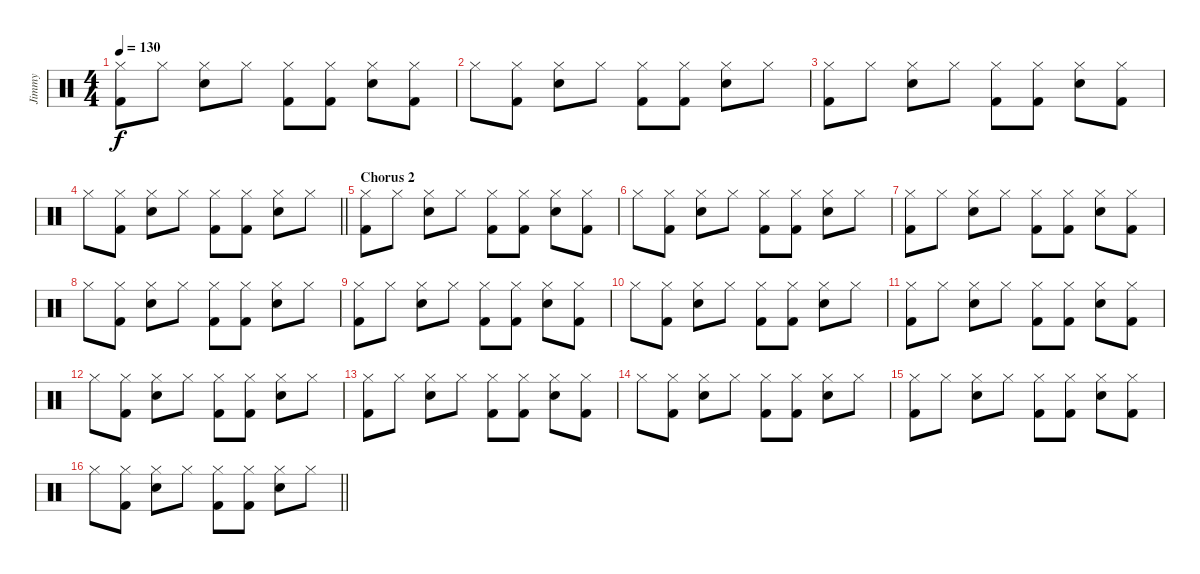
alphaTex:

\track ("Jimmy" "Jimmy") {instrument percussion}
\staff {score}
\articulation defaults
\ts (4 4)
\tempo 130
\clef neutral
\ks c
("Hi-Hat (closed)" "Kick (hit) 2").8{dy f} "Hi-Hat (closed)".8 ("Hi-Hat (closed)" "Electric Snare (hit)").8 "Hi-Hat (closed)".8 ("Hi-Hat (closed)" "Kick (hit) 2").8 ("Hi-Hat (closed)" "Kick (hit) 2").8 ("Hi-Hat (closed)" "Electric Snare (hit)").8 ("Hi-Hat (closed)" "Kick (hit) 2").8 |
"Hi-Hat (closed)".8 ("Hi-Hat (closed)" "Kick (hit) 2").8 ("Hi-Hat (closed)" "Electric Snare (hit)").8 "Hi-Hat (closed)".8 ("Hi-Hat (closed)" "Kick (hit) 2").8 ("Hi-Hat (closed)" "Kick (hit) 2").8 ("Hi-Hat (closed)" "Electric Snare (hit)").8 "Hi-Hat (closed)".8 |
("Hi-Hat (closed)" "Kick (hit) 2").8 "Hi-Hat (closed)".8 ("Hi-Hat (closed)" "Electric Snare (hit)").8 "Hi-Hat (closed)".8 ("Hi-Hat (closed)" "Kick (hit) 2").8 ("Hi-Hat (closed)" "Kick (hit) 2").8 ("Hi-Hat (closed)" "Electric Snare (hit)").8 ("Hi-Hat (closed)" "Kick (hit) 2").8 |
\barLineRight lightlight "Hi-Hat (closed)".8
("Hi-Hat (closed)" "Kick (hit) 2").8 ("Hi-Hat (closed)" "Electric Snare (hit)").8 "Hi-Hat (closed)".8 ("Hi-Hat (closed)" "Kick (hit) 2").8 ("Hi-Hat (closed)" "Kick (hit) 2").8 ("Hi-Hat (closed)" "Electric Snare (hit)").8 "Hi-Hat (closed)".8 |
\section ("" "Chorus 2")
("Hi-Hat (closed)" "Kick (hit) 2").8 "Hi-Hat (closed)".8 ("Hi-Hat (closed)" "Electric Snare (hit)").8 "Hi-Hat (closed)".8 ("Hi-Hat (closed)" "Kick (hit) 2").8 ("Hi-Hat (closed)" "Kick (hit) 2").8 ("Hi-Hat (closed)" "Electric Snare (hit)").8 ("Hi-Hat (closed)" "Kick (hit) 2").8 |
"Hi-Hat (closed)".8 ("Hi-Hat (closed)" "Kick (hit) 2").8 ("Hi-Hat (closed)" "Electric Snare (hit)").8 "Hi-Hat (closed)".8 ("Hi-Hat (closed)" "Kick (hit) 2").8 ("Hi-Hat (closed)" "Kick (hit) 2").8 ("Hi-Hat (closed)" "Electric Snare (hit)").8 "Hi-Hat (closed)".8 |
("Hi-Hat (closed)" "Kick (hit) 2").8 "Hi-Hat (closed)".8 ("Hi-Hat (closed)" "Electric Snare (hit)").8 "Hi-Hat (closed)".8 ("Hi-Hat (closed)" "Kick (hit) 2").8 ("Hi-Hat (closed)" "Kick (hit) 2").8 ("Hi-Hat (closed)" "Electric Snare (hit)").8 ("Hi-Hat (closed)" "Kick (hit) 2").8 |
"Hi-Hat (closed)".8 ("Hi-Hat (closed)" "Kick (hit) 2").8 ("Hi-Hat (closed)" "Electric Snare (hit)").8 "Hi-Hat (closed)".8 ("Hi-Hat (closed)" "Kick (hit) 2").8 ("Hi-Hat (closed)" "Kick (hit) 2").8 ("Hi-Hat (closed)" "Electric Snare (hit)").8 "Hi-Hat (closed)".8 |
("Hi-Hat (closed)" "Kick (hit) 2").8 "Hi-Hat (closed)".8 ("Hi-Hat (closed)" "Electric Snare (hit)").8 "Hi-Hat (closed)".8 ("Hi-Hat (closed)" "Kick (hit) 2").8 ("Hi-Hat (closed)" "Kick (hit) 2").8 ("Hi-Hat (closed)" "Electric Snare (hit)").8 ("Hi-Hat (closed)" "Kick (hit) 2").8 |
"Hi-Hat (closed)".8 ("Hi-Hat (closed)" "Kick (hit) 2").8 ("Hi-Hat (closed)" "Electric Snare (hit)").8 "Hi-Hat (closed)".8 ("Hi-Hat (closed)" "Kick (hit) 2").8 ("Hi-Hat (closed)" "Kick (hit) 2").8 ("Hi-Hat (closed)" "Electric Snare (hit)").8 "Hi-Hat (closed)".8 |
("Hi-Hat (closed)" "Kick (hit) 2").8 "Hi-Hat (closed)".8 ("Hi-Hat (closed)" "Electric Snare (hit)").8 "Hi-Hat (closed)".8 ("Hi-Hat (closed)" "Kick (hit) 2").8 ("Hi-Hat (closed)" "Kick (hit) 2").8 ("Hi-Hat (closed)" "Electric Snare (hit)").8 ("Hi-Hat (closed)" "Kick (hit) 2").8 |
"Hi-Hat (closed)".8 ("Hi-Hat (closed)" "Kick (hit) 2").8 ("Hi-Hat (closed)" "Electric Snare (hit)").8 "Hi-Hat (closed)".8 ("Hi-Hat (closed)" "Kick (hit) 2").8 ("Hi-Hat (closed)" "Kick (hit) 2").8 ("Hi-Hat (closed)" "Electric Snare (hit)").8 "Hi-Hat (closed)".8 |
("Hi-Hat (closed)" "Kick (hit) 2").8 "Hi-Hat (closed)".8 ("Hi-Hat (closed)" "Electric Snare (hit)").8 "Hi-Hat (closed)".8 ("Hi-Hat (closed)" "Kick (hit) 2").8 ("Hi-Hat (closed)" "Kick (hit) 2").8 ("Hi-Hat (closed)" "Electric Snare (hit)").8 ("Hi-Hat (closed)" "Kick (hit) 2").8 |
"Hi-Hat (closed)".8 ("Hi-Hat (closed)" "Kick (hit) 2").8 ("Hi-Hat (closed)" "Electric Snare (hit)").8 "Hi-Hat (closed)".8 ("Hi-Hat (closed)" "Kick (hit) 2").8 ("Hi-Hat (closed)" "Kick (hit) 2").8 ("Hi-Hat (closed)" "Electric Snare (hit)").8 "Hi-Hat (closed)".8 |
("Hi-Hat (closed)" "Kick (hit) 2").8 "Hi-Hat (closed)".8 ("Hi-Hat (closed)" "Electric Snare (hit)").8 "Hi-Hat (closed)".8 ("Hi-Hat (closed)" "Kick (hit) 2").8 ("Hi-Hat (closed)" "Kick (hit) 2").8 ("Hi-Hat (closed)" "Electric Snare (hit)").8 ("Hi-Hat (closed)" "Kick (hit) 2").8 |
\barLineRight lightlight "Hi-Hat (closed)".8
("Hi-Hat (closed)" "Kick (hit) 2").8 ("Hi-Hat (closed)" "Electric Snare (hit)").8 "Hi-Hat (closed)".8 ("Hi-Hat (closed)" "Kick (hit) 2").8 ("Hi-Hat (closed)" "Kick (hit) 2").8 ("Hi-Hat (closed)" "Electric Snare (hit)").8 "Hi-Hat (closed)".8
